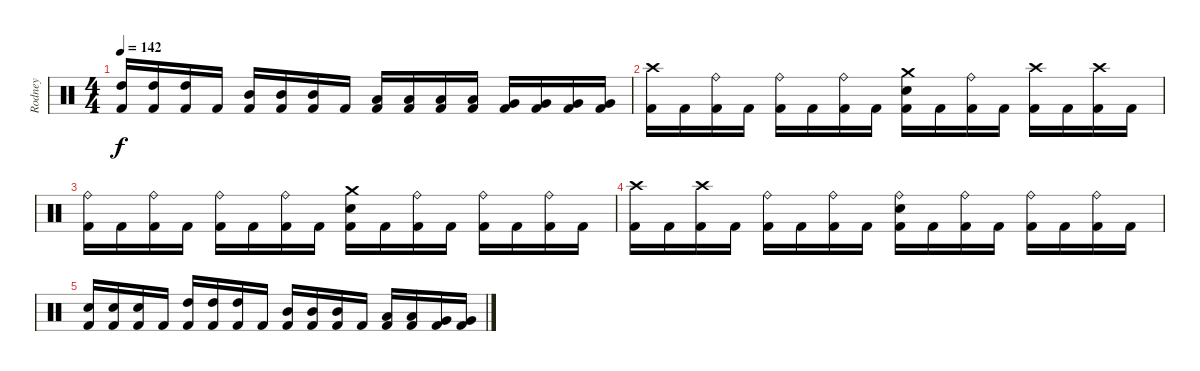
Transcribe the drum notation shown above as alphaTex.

\track ("Rodney" "Rodney") {instrument percussion}
\staff {score}
\articulation defaults
\ts (4 4)
\tempo 142
\clef neutral
\ks c
("High Tom (hit)" "Kick (hit) 2").16{dy f} ("High Tom (hit)" "Kick (hit) 2").16 ("High Tom (hit)" "Kick (hit) 2").16 "Kick (hit) 2".16 ("Mid Tom (hit)" "Kick (hit) 2").16 ("Mid Tom (hit)" "Kick (hit) 2").16 ("Mid Tom (hit)" "Kick (hit) 2").16 "Kick (hit) 2".16 ("Low Tom (hit)" "Kick (hit) 2").16 ("Low Tom (hit)" "Kick (hit) 2").16 ("Low Tom (hit)" "Kick (hit) 2").16 ("Low Tom (hit)" "Kick (hit) 2").16 ("Very Low Tom (hit)" "Kick (hit) 2").16 ("Very Low Tom (hit)" "Kick (hit) 2").16 ("Very Low Tom (hit)" "Kick (hit) 2").16 ("Very Low Tom (hit)" "Kick (hit) 2").16 |
("Crash high (hit)" "Kick (hit) 2").16{volume 2} "Kick (hit) 2".16 ("Ride (bell)" "Kick (hit) 2").16 "Kick (hit) 2".16 ("Ride (bell)" "Kick (hit) 2").16 "Kick (hit) 2".16 ("Ride (bell)" "Kick (hit) 2").16 "Kick (hit) 2".16 ("Crash medium (hit)" "Snare (hit) 2" "Kick (hit) 2").16 "Kick (hit) 2".16 ("Ride (bell)" "Kick (hit) 2").16 "Kick (hit) 2".16 ("Crash high (hit)" "Kick (hit) 2").16 "Kick (hit) 2".16 ("Crash high (hit)" "Kick (hit) 2").16 "Kick (hit) 2".16 |
("Ride (bell)" "Kick (hit) 2").16 "Kick (hit) 2".16 ("Ride (bell)" "Kick (hit) 2").16 "Kick (hit) 2".16 ("Ride (bell)" "Kick (hit) 2").16 "Kick (hit) 2".16 ("Ride (bell)" "Kick (hit) 2").16 "Kick (hit) 2".16 ("Crash medium (hit)" "Snare (hit) 2" "Kick (hit) 2").16 "Kick (hit) 2".16 ("Ride (bell)" "Kick (hit) 2").16 "Kick (hit) 2".16 ("Ride (bell)" "Kick (hit) 2").16 "Kick (hit) 2".16 ("Ride (bell)" "Kick (hit) 2").16 "Kick (hit) 2".16 |
("Crash high (hit)" "Kick (hit) 2").16{volume 0} "Kick (hit) 2".16 ("Crash high (hit)" "Kick (hit) 2").16 "Kick (hit) 2".16 ("Ride (bell)" "Kick (hit) 2").16 "Kick (hit) 2".16 ("Ride (bell)" "Kick (hit) 2").16 "Kick (hit) 2".16 ("Ride (bell)" "Snare (hit) 2" "Kick (hit) 2").16 "Kick (hit) 2".16 ("Ride (bell)" "Kick (hit) 2").16 "Kick (hit) 2".16 ("Ride (bell)" "Kick (hit) 2").16 "Kick (hit) 2".16 ("Ride (bell)" "Kick (hit) 2").16 "Kick (hit) 2".16 |
("Snare (hit) 2" "Kick (hit) 2").16 ("Snare (hit) 2" "Kick (hit) 2").16 ("Snare (hit) 2" "Kick (hit) 2").16 "Kick (hit) 2".16 ("High Tom (hit)" "Kick (hit) 2").16 ("High Tom (hit)" "Kick (hit) 2").16 ("High Tom (hit)" "Kick (hit) 2").16 "Kick (hit) 2".16 ("Mid Tom (hit)" "Kick (hit) 2").16 ("Mid Tom (hit)" "Kick (hit) 2").16 ("Mid Tom (hit)" "Kick (hit) 2").16 "Kick (hit) 2".16 ("Low Tom (hit)" "Kick (hit) 2").16 ("Low Tom (hit)" "Kick (hit) 2").16 ("Very Low Tom (hit)" "Kick (hit) 2").16 ("Very Low Tom (hit)" "Kick (hit) 2").16
